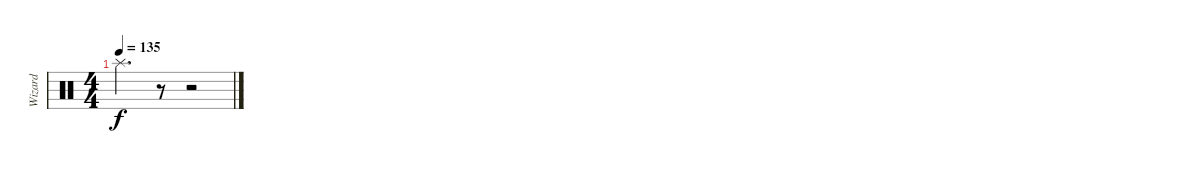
\track ("Wizard" "Wizard") {instrument percussion}
\staff {score}
\articulation defaults
\ts (4 4)
\tempo 135
\clef neutral
\ks c "Splash (hit)".4{d dy f}
r.8 r.2
